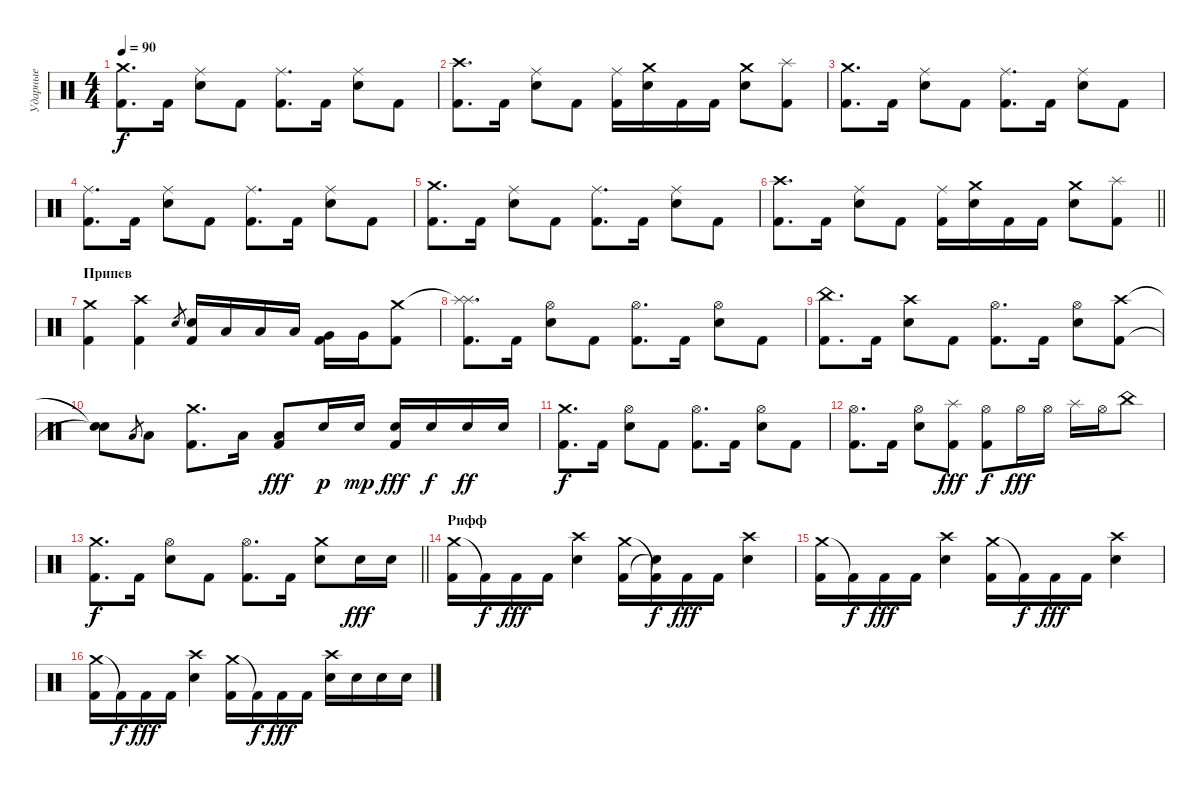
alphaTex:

\track ("Ударные" "Ударные") {instrument percussion}
\staff {score}
\articulation defaults
\ts (4 4)
\tempo 90
\clef neutral
\ks c
("Crash medium (hit)" "Kick (hit) 2").8{d dy f} "Kick (hit) 2".16 ("Ride (middle)" "Snare (hit) 2").8 "Kick (hit) 2".8 ("Ride (middle)" "Kick (hit) 2").8{d} "Kick (hit) 2".16 ("Ride (middle)" "Snare (hit) 2").8 "Kick (hit) 2".8 |
("Crash high (hit)" "Kick (hit) 2").8{d} "Kick (hit) 2".16 ("Ride (middle)" "Snare (hit) 2").8 "Kick (hit) 2".8 ("Ride (middle)" "Kick (hit) 2").16 ("Crash medium (hit)" "Snare (hit) 2").16 "Kick (hit) 2".16 "Kick (hit) 2".16 ("Crash medium (hit)" "Snare (hit) 2").8 ("Splash (hit)" "Kick (hit) 2").8 |
("Crash medium (hit)" "Kick (hit) 2").8{d} "Kick (hit) 2".16 ("Ride (middle)" "Snare (hit) 2").8 "Kick (hit) 2".8 ("Ride (middle)" "Kick (hit) 2").8{d} "Kick (hit) 2".16 ("Ride (middle)" "Snare (hit) 2").8 "Kick (hit) 2".8 |
("Ride (middle)" "Kick (hit) 2").8{d} "Kick (hit) 2".16 ("Ride (middle)" "Snare (hit) 2").8 "Kick (hit) 2".8 ("Ride (middle)" "Kick (hit) 2").8{d} "Kick (hit) 2".16 ("Ride (middle)" "Snare (hit) 2").8 "Kick (hit) 2".8 |
("Crash medium (hit)" "Kick (hit) 2").8{d} "Kick (hit) 2".16 ("Ride (middle)" "Snare (hit) 2").8 "Kick (hit) 2".8 ("Ride (middle)" "Kick (hit) 2").8{d} "Kick (hit) 2".16 ("Ride (middle)" "Snare (hit) 2").8 "Kick (hit) 2".8 |
\barLineRight lightlight
("Crash high (hit)" "Kick (hit) 2").8{d} "Kick (hit) 2".16 ("Ride (middle)" "Snare (hit) 2").8 "Kick (hit) 2".8 ("Ride (middle)" "Kick (hit) 2").16 ("Crash medium (hit)" "Snare (hit) 2").16 "Kick (hit) 2".16 "Kick (hit) 2".16 ("Crash medium (hit)" "Snare (hit) 2").8 ("Splash (hit)" "Kick (hit) 2").8 |
\section ("" "Припев")
("Crash medium (hit)" "Kick (hit) 2").4 ("Crash high (hit)" "Kick (hit) 2").4 "Snare (hit) 2".8{gr} ("Snare (hit) 2" "Kick (hit) 2").16 "Low Tom (hit)".16 "Low Tom (hit)".16 "Low Tom (hit)".16 ("Very Low Tom (hit)" "Kick (hit) 2").16 "Very Low Tom (hit)".16 ("Crash medium (hit)" "Kick (hit) 2").8 |
("Splash (hit)"{t} "Splash (hit)" "Kick (hit) 2").8{d} "Kick (hit) 2".16 ("Hi-Hat (open)" "Snare (hit) 2").8 "Kick (hit) 2".8 ("Hi-Hat (open)" "Kick (hit) 2").8{d} "Kick (hit) 2".16 ("Hi-Hat (open)" "Snare (hit) 2").8 "Kick (hit) 2".8 |
("China (hit)" "Kick (hit) 2").8{d} "Kick (hit) 2".16 ("Crash high (hit)" "Snare (hit) 2").8 "Kick (hit) 2".8 ("Hi-Hat (open)" "Kick (hit) 2").8{d} "Kick (hit) 2".16 ("Hi-Hat (open)" "Snare (hit) 2").8 ("Crash high (hit)" "Kick (hit) 2").8 |
("Snare (hit)"{t} "Snare (hit)"{t}).8 "Low Tom (hit)".8{gr} "Low Tom (hit)".8 ("Crash medium (hit)" "Kick (hit) 2").8{d} "Low Tom (hit)".16 ("Low Tom (hit)" "Kick (hit) 2").8{dy fff} "Snare (hit) 2".16{dy p} "Snare (hit) 2".16{dy mp} ("Snare (hit) 2" "Kick (hit) 2").16{dy fff} "Snare (hit) 2".16{dy f} "Snare (hit) 2".16{dy ff} "Snare (hit) 2".16 |
("Crash medium (hit)" "Kick (hit) 2").8{d dy f} "Kick (hit) 2".16 ("Hi-Hat (open)" "Snare (hit) 2").8 "Kick (hit) 2".8 ("Hi-Hat (open)" "Kick (hit) 2").8{d} "Kick (hit) 2".16 ("Hi-Hat (open)" "Snare (hit) 2").8 "Kick (hit) 2".8 |
("Hi-Hat (open)" "Kick (hit) 2").8{d} "Kick (hit) 2".16 ("Hi-Hat (open)" "Snare (hit) 2").8 ("Splash (hit)" "Kick (hit) 2").8{dy fff} ("Hi-Hat (open)" "Kick (hit) 2").8{dy f} "Hi-Hat (open)".16{dy fff} "Hi-Hat (open)".16 "Splash (hit)".16 "Hi-Hat (open)".16 "China (hit)".8 |
\barLineRight lightlight
("Crash medium (hit)" "Kick (hit) 2").8{d dy f} "Kick (hit) 2".16 ("Hi-Hat (open)" "Snare (hit) 2").8 "Kick (hit) 2".8 ("Hi-Hat (open)" "Kick (hit) 2").8{d} "Kick (hit) 2".16 ("Crash medium (hit)" "Snare (hit) 2").8 "Snare (hit) 2".16{dy fff} "Snare (hit) 2".16 |
\section ("" "Рифф")
("Crash medium (hit)" "Kick (hit) 2").16 "Kick (hit) 2"{t}.16{dy f} "Kick (hit) 2".16{dy fff} "Kick (hit) 2".16 ("Crash high (hit)" "Snare (hit) 2").4 ("Crash medium (hit)" "Kick (hit) 2").16 ("Kick (hit) 2"{t} "Snare (hit)"{t}).16{dy f} "Kick (hit) 2".16{dy fff} "Kick (hit) 2".16 ("Crash high (hit)" "Snare (hit) 2").4 |
("Crash medium (hit)" "Kick (hit) 2").16 "Kick (hit) 2"{t}.16{dy f} "Kick (hit) 2".16{dy fff} "Kick (hit) 2".16 ("Crash high (hit)" "Snare (hit) 2").4 ("Crash medium (hit)" "Kick (hit) 2").16 "Kick (hit) 2"{t}.16{dy f} "Kick (hit) 2".16{dy fff} "Kick (hit) 2".16 ("Crash high (hit)" "Snare (hit) 2").4 |
("Crash medium (hit)" "Kick (hit) 2").16 "Kick (hit) 2"{t}.16{dy f} "Kick (hit) 2".16{dy fff} "Kick (hit) 2".16 ("Crash high (hit)" "Snare (hit) 2").4 ("Crash medium (hit)" "Kick (hit) 2").16 "Kick (hit) 2"{t}.16{dy f} "Kick (hit) 2".16{dy fff} "Kick (hit) 2".16 ("Crash high (hit)" "Snare (hit) 2").16 "Snare (hit) 2".16 "Snare (hit) 2".16 "Snare (hit) 2".16
